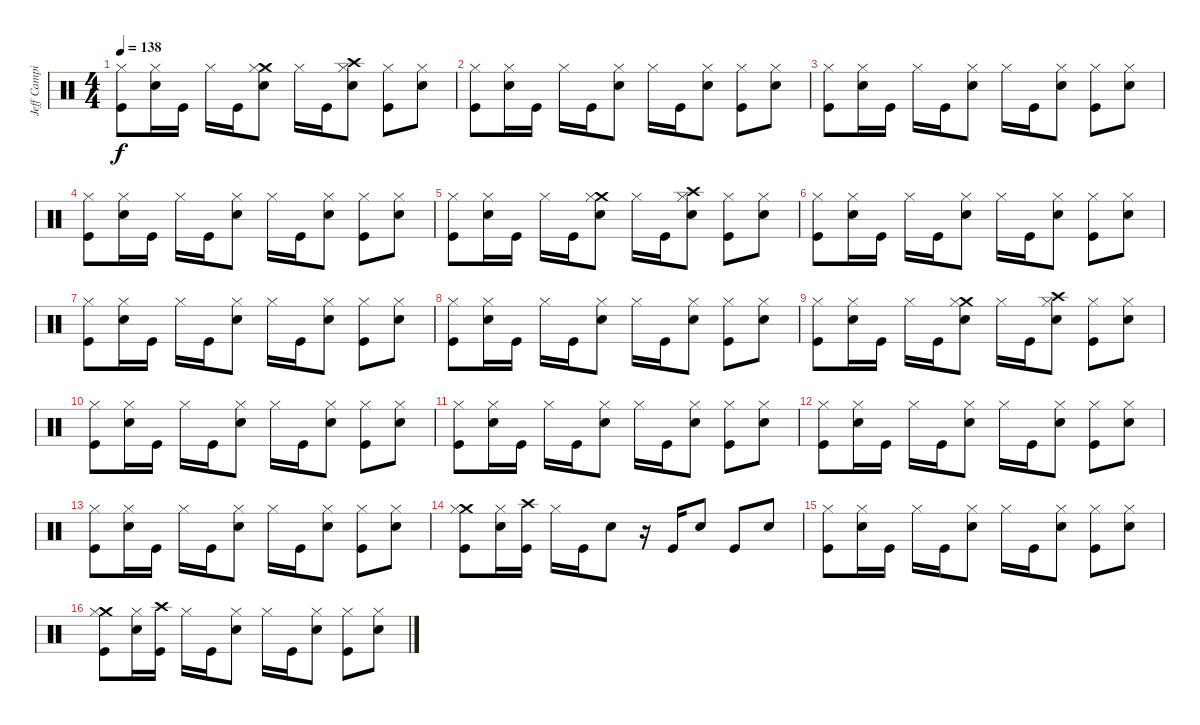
\track ("Jeff Campitelli" "Jeff Campi") {instrument percussion}
\staff {score}
\articulation defaults
\ts (4 4)
\tempo 138
\clef neutral
\ks c
("Hi-Hat (closed)" "Kick (hit)").8{dy f} ("Electric Snare (hit)" "Hi-Hat (closed)").16 "Kick (hit)".16 "Hi-Hat (closed)".16 "Kick (hit)".16 ("Crash medium (hit)" "Electric Snare (hit)" "Hi-Hat (closed)").8 "Hi-Hat (closed)".16 "Kick (hit)".16 ("Crash high (hit)" "Electric Snare (hit)" "Hi-Hat (closed)").8 ("Hi-Hat (closed)" "Kick (hit)").8 ("Electric Snare (hit)" "Hi-Hat (closed)").8 |
("Hi-Hat (closed)" "Kick (hit)").8 ("Electric Snare (hit)" "Hi-Hat (closed)").16 "Kick (hit)".16 "Hi-Hat (closed)".16 "Kick (hit)".16 ("Electric Snare (hit)" "Hi-Hat (closed)").8 "Hi-Hat (closed)".16 "Kick (hit)".16 ("Electric Snare (hit)" "Hi-Hat (closed)").8 ("Hi-Hat (closed)" "Kick (hit)").8 ("Electric Snare (hit)" "Hi-Hat (closed)").8 |
("Hi-Hat (closed)" "Kick (hit)").8 ("Electric Snare (hit)" "Hi-Hat (closed)").16 "Kick (hit)".16 "Hi-Hat (closed)".16 "Kick (hit)".16 ("Electric Snare (hit)" "Hi-Hat (closed)").8 "Hi-Hat (closed)".16 "Kick (hit)".16 ("Electric Snare (hit)" "Hi-Hat (closed)").8 ("Hi-Hat (closed)" "Kick (hit)").8 ("Electric Snare (hit)" "Hi-Hat (closed)").8 |
("Hi-Hat (closed)" "Kick (hit)").8 ("Electric Snare (hit)" "Hi-Hat (closed)").16 "Kick (hit)".16 "Hi-Hat (closed)".16 "Kick (hit)".16 ("Electric Snare (hit)" "Hi-Hat (closed)").8 "Hi-Hat (closed)".16 "Kick (hit)".16 ("Electric Snare (hit)" "Hi-Hat (closed)").8 ("Hi-Hat (closed)" "Kick (hit)").8 ("Electric Snare (hit)" "Hi-Hat (closed)").8 |
("Hi-Hat (closed)" "Kick (hit)").8 ("Electric Snare (hit)" "Hi-Hat (closed)").16 "Kick (hit)".16 "Hi-Hat (closed)".16 "Kick (hit)".16 ("Crash medium (hit)" "Electric Snare (hit)" "Hi-Hat (closed)").8 "Hi-Hat (closed)".16 "Kick (hit)".16 ("Crash high (hit)" "Electric Snare (hit)" "Hi-Hat (closed)").8 ("Hi-Hat (closed)" "Kick (hit)").8 ("Electric Snare (hit)" "Hi-Hat (closed)").8 |
("Hi-Hat (closed)" "Kick (hit)").8 ("Electric Snare (hit)" "Hi-Hat (closed)").16 "Kick (hit)".16 "Hi-Hat (closed)".16 "Kick (hit)".16 ("Electric Snare (hit)" "Hi-Hat (closed)").8 "Hi-Hat (closed)".16 "Kick (hit)".16 ("Electric Snare (hit)" "Hi-Hat (closed)").8 ("Hi-Hat (closed)" "Kick (hit)").8 ("Electric Snare (hit)" "Hi-Hat (closed)").8 |
("Hi-Hat (closed)" "Kick (hit)").8 ("Electric Snare (hit)" "Hi-Hat (closed)").16 "Kick (hit)".16 "Hi-Hat (closed)".16 "Kick (hit)".16 ("Electric Snare (hit)" "Hi-Hat (closed)").8 "Hi-Hat (closed)".16 "Kick (hit)".16 ("Electric Snare (hit)" "Hi-Hat (closed)").8 ("Hi-Hat (closed)" "Kick (hit)").8 ("Electric Snare (hit)" "Hi-Hat (closed)").8 |
("Hi-Hat (closed)" "Kick (hit)").8 ("Electric Snare (hit)" "Hi-Hat (closed)").16 "Kick (hit)".16 "Hi-Hat (closed)".16 "Kick (hit)".16 ("Electric Snare (hit)" "Hi-Hat (closed)").8 "Hi-Hat (closed)".16 "Kick (hit)".16 ("Electric Snare (hit)" "Hi-Hat (closed)").8 ("Hi-Hat (closed)" "Kick (hit)").8 ("Electric Snare (hit)" "Hi-Hat (closed)").8 |
("Hi-Hat (closed)" "Kick (hit)").8 ("Electric Snare (hit)" "Hi-Hat (closed)").16 "Kick (hit)".16 "Hi-Hat (closed)".16 "Kick (hit)".16 ("Crash medium (hit)" "Electric Snare (hit)" "Hi-Hat (closed)").8 "Hi-Hat (closed)".16 "Kick (hit)".16 ("Crash high (hit)" "Electric Snare (hit)" "Hi-Hat (closed)").8 ("Hi-Hat (closed)" "Kick (hit)").8 ("Electric Snare (hit)" "Hi-Hat (closed)").8 |
("Hi-Hat (closed)" "Kick (hit)").8 ("Electric Snare (hit)" "Hi-Hat (closed)").16 "Kick (hit)".16 "Hi-Hat (closed)".16 "Kick (hit)".16 ("Electric Snare (hit)" "Hi-Hat (closed)").8 "Hi-Hat (closed)".16 "Kick (hit)".16 ("Electric Snare (hit)" "Hi-Hat (closed)").8 ("Hi-Hat (closed)" "Kick (hit)").8 ("Electric Snare (hit)" "Hi-Hat (closed)").8 |
("Hi-Hat (closed)" "Kick (hit)").8 ("Electric Snare (hit)" "Hi-Hat (closed)").16 "Kick (hit)".16 "Hi-Hat (closed)".16 "Kick (hit)".16 ("Electric Snare (hit)" "Hi-Hat (closed)").8 "Hi-Hat (closed)".16 "Kick (hit)".16 ("Electric Snare (hit)" "Hi-Hat (closed)").8 ("Hi-Hat (closed)" "Kick (hit)").8 ("Electric Snare (hit)" "Hi-Hat (closed)").8 |
("Hi-Hat (closed)" "Kick (hit)").8 ("Electric Snare (hit)" "Hi-Hat (closed)").16 "Kick (hit)".16 "Hi-Hat (closed)".16 "Kick (hit)".16 ("Electric Snare (hit)" "Hi-Hat (closed)").8 "Hi-Hat (closed)".16 "Kick (hit)".16 ("Electric Snare (hit)" "Hi-Hat (closed)").8 ("Hi-Hat (closed)" "Kick (hit)").8 ("Electric Snare (hit)" "Hi-Hat (closed)").8 |
("Hi-Hat (closed)" "Kick (hit)").8 ("Electric Snare (hit)" "Hi-Hat (closed)").16 "Kick (hit)".16 "Hi-Hat (closed)".16 "Kick (hit)".16 ("Electric Snare (hit)" "Hi-Hat (closed)").8 "Hi-Hat (closed)".16 "Kick (hit)".16 ("Electric Snare (hit)" "Hi-Hat (closed)").8 ("Hi-Hat (closed)" "Kick (hit)").8 ("Electric Snare (hit)" "Hi-Hat (closed)").8 |
("Crash medium (hit)" "Hi-Hat (closed)" "Kick (hit)").8 ("Electric Snare (hit)" "Hi-Hat (closed)").16 ("Crash high (hit)" "Kick (hit)").16 "Hi-Hat (closed)".16 "Kick (hit)".16 "Electric Snare (hit)".8 r.16 "Kick (hit)".16 "Electric Snare (hit)".8 "Kick (hit)".8 "Electric Snare (hit)".8 |
("Hi-Hat (closed)" "Kick (hit)").8 ("Electric Snare (hit)" "Hi-Hat (closed)").16 "Kick (hit)".16 "Hi-Hat (closed)".16 "Kick (hit)".16 ("Electric Snare (hit)" "Hi-Hat (closed)").8 "Hi-Hat (closed)".16 "Kick (hit)".16 ("Electric Snare (hit)" "Hi-Hat (closed)").8 ("Hi-Hat (closed)" "Kick (hit)").8 ("Electric Snare (hit)" "Hi-Hat (closed)").8 |
("Crash medium (hit)" "Hi-Hat (closed)" "Kick (hit)").8 ("Electric Snare (hit)" "Hi-Hat (closed)").16 ("Crash high (hit)" "Kick (hit)").16 "Hi-Hat (closed)".16 "Kick (hit)".16 ("Electric Snare (hit)" "Hi-Hat (closed)").8 "Hi-Hat (closed)".16 "Kick (hit)".16 ("Electric Snare (hit)" "Hi-Hat (closed)").8 ("Hi-Hat (closed)" "Kick (hit)").8 ("Electric Snare (hit)" "Hi-Hat (closed)").8
